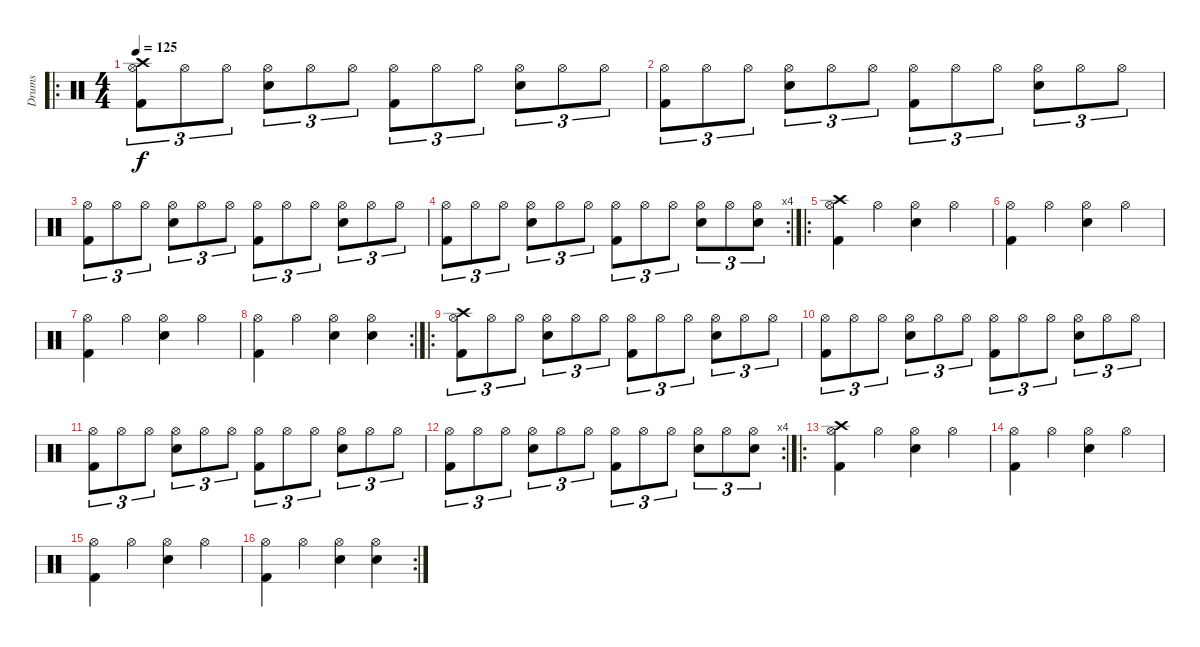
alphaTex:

\track ("Drums" "Drums") {instrument percussion}
\staff {score}
\articulation defaults
\ro
\ts (4 4)
\tempo 125
\clef neutral
\ks c
("Kick (hit) 2" "Hi-Hat (open)" "Crash high (hit)").8{tu (3 2) dy f} "Hi-Hat (open)".8{tu (3 2)} "Hi-Hat (open)".8{tu (3 2)} ("Snare (hit) 2" "Hi-Hat (open)").8{tu (3 2)} "Hi-Hat (open)".8{tu (3 2)} "Hi-Hat (open)".8{tu (3 2)} ("Kick (hit) 2" "Hi-Hat (open)").8{tu (3 2)} "Hi-Hat (open)".8{tu (3 2)} "Hi-Hat (open)".8{tu (3 2)} ("Snare (hit) 2" "Hi-Hat (open)").8{tu (3 2)} "Hi-Hat (open)".8{tu (3 2)} "Hi-Hat (open)".8{tu (3 2)} |
("Kick (hit) 2" "Hi-Hat (open)").8{tu (3 2)} "Hi-Hat (open)".8{tu (3 2)} "Hi-Hat (open)".8{tu (3 2)} ("Snare (hit) 2" "Hi-Hat (open)").8{tu (3 2)} "Hi-Hat (open)".8{tu (3 2)} "Hi-Hat (open)".8{tu (3 2)} ("Kick (hit) 2" "Hi-Hat (open)").8{tu (3 2)} "Hi-Hat (open)".8{tu (3 2)} "Hi-Hat (open)".8{tu (3 2)} ("Snare (hit) 2" "Hi-Hat (open)").8{tu (3 2)} "Hi-Hat (open)".8{tu (3 2)} "Hi-Hat (open)".8{tu (3 2)} |
("Kick (hit) 2" "Hi-Hat (open)").8{tu (3 2)} "Hi-Hat (open)".8{tu (3 2)} "Hi-Hat (open)".8{tu (3 2)} ("Snare (hit) 2" "Hi-Hat (open)").8{tu (3 2)} "Hi-Hat (open)".8{tu (3 2)} "Hi-Hat (open)".8{tu (3 2)} ("Kick (hit) 2" "Hi-Hat (open)").8{tu (3 2)} "Hi-Hat (open)".8{tu (3 2)} "Hi-Hat (open)".8{tu (3 2)} ("Snare (hit) 2" "Hi-Hat (open)").8{tu (3 2)} "Hi-Hat (open)".8{tu (3 2)} "Hi-Hat (open)".8{tu (3 2)} |
\rc 4
("Kick (hit) 2" "Hi-Hat (open)").8{tu (3 2)} "Hi-Hat (open)".8{tu (3 2)} "Hi-Hat (open)".8{tu (3 2)} ("Snare (hit) 2" "Hi-Hat (open)").8{tu (3 2)} "Hi-Hat (open)".8{tu (3 2)} "Hi-Hat (open)".8{tu (3 2)} ("Kick (hit) 2" "Hi-Hat (open)").8{tu (3 2)} "Hi-Hat (open)".8{tu (3 2)} "Hi-Hat (open)".8{tu (3 2)} ("Snare (hit) 2" "Hi-Hat (open)").8{tu (3 2)} "Hi-Hat (open)".8{tu (3 2)} ("Snare (hit) 2" "Hi-Hat (open)").8{tu (3 2)} |
\ro
("Kick (hit) 2" "Hi-Hat (open)" "Crash high (hit)").4 "Hi-Hat (open)".4 ("Snare (hit) 2" "Hi-Hat (open)").4 "Hi-Hat (open)".4 |
("Kick (hit) 2" "Hi-Hat (open)").4 "Hi-Hat (open)".4 ("Snare (hit) 2" "Hi-Hat (open)").4 "Hi-Hat (open)".4 |
("Kick (hit) 2" "Hi-Hat (open)").4 "Hi-Hat (open)".4 ("Snare (hit) 2" "Hi-Hat (open)").4 "Hi-Hat (open)".4 |
\rc 2
("Kick (hit) 2" "Hi-Hat (open)").4 "Hi-Hat (open)".4 ("Snare (hit) 2" "Hi-Hat (open)").4 ("Snare (hit) 2" "Hi-Hat (open)").4 |
\ro
("Kick (hit) 2" "Hi-Hat (open)" "Crash high (hit)").8{tu (3 2)} "Hi-Hat (open)".8{tu (3 2)} "Hi-Hat (open)".8{tu (3 2)} ("Snare (hit) 2" "Hi-Hat (open)").8{tu (3 2)} "Hi-Hat (open)".8{tu (3 2)} "Hi-Hat (open)".8{tu (3 2)} ("Kick (hit) 2" "Hi-Hat (open)").8{tu (3 2)} "Hi-Hat (open)".8{tu (3 2)} "Hi-Hat (open)".8{tu (3 2)} ("Snare (hit) 2" "Hi-Hat (open)").8{tu (3 2)} "Hi-Hat (open)".8{tu (3 2)} "Hi-Hat (open)".8{tu (3 2)} |
("Kick (hit) 2" "Hi-Hat (open)").8{tu (3 2)} "Hi-Hat (open)".8{tu (3 2)} "Hi-Hat (open)".8{tu (3 2)} ("Snare (hit) 2" "Hi-Hat (open)").8{tu (3 2)} "Hi-Hat (open)".8{tu (3 2)} "Hi-Hat (open)".8{tu (3 2)} ("Kick (hit) 2" "Hi-Hat (open)").8{tu (3 2)} "Hi-Hat (open)".8{tu (3 2)} "Hi-Hat (open)".8{tu (3 2)} ("Snare (hit) 2" "Hi-Hat (open)").8{tu (3 2)} "Hi-Hat (open)".8{tu (3 2)} "Hi-Hat (open)".8{tu (3 2)} |
("Kick (hit) 2" "Hi-Hat (open)").8{tu (3 2)} "Hi-Hat (open)".8{tu (3 2)} "Hi-Hat (open)".8{tu (3 2)} ("Snare (hit) 2" "Hi-Hat (open)").8{tu (3 2)} "Hi-Hat (open)".8{tu (3 2)} "Hi-Hat (open)".8{tu (3 2)} ("Kick (hit) 2" "Hi-Hat (open)").8{tu (3 2)} "Hi-Hat (open)".8{tu (3 2)} "Hi-Hat (open)".8{tu (3 2)} ("Snare (hit) 2" "Hi-Hat (open)").8{tu (3 2)} "Hi-Hat (open)".8{tu (3 2)} "Hi-Hat (open)".8{tu (3 2)} |
\rc 4
("Kick (hit) 2" "Hi-Hat (open)").8{tu (3 2)} "Hi-Hat (open)".8{tu (3 2)} "Hi-Hat (open)".8{tu (3 2)} ("Snare (hit) 2" "Hi-Hat (open)").8{tu (3 2)} "Hi-Hat (open)".8{tu (3 2)} "Hi-Hat (open)".8{tu (3 2)} ("Kick (hit) 2" "Hi-Hat (open)").8{tu (3 2)} "Hi-Hat (open)".8{tu (3 2)} "Hi-Hat (open)".8{tu (3 2)} ("Snare (hit) 2" "Hi-Hat (open)").8{tu (3 2)} "Hi-Hat (open)".8{tu (3 2)} ("Snare (hit) 2" "Hi-Hat (open)").8{tu (3 2)} |
\ro
("Kick (hit) 2" "Hi-Hat (open)" "Crash high (hit)").4 "Hi-Hat (open)".4 ("Snare (hit) 2" "Hi-Hat (open)").4 "Hi-Hat (open)".4 |
("Kick (hit) 2" "Hi-Hat (open)").4 "Hi-Hat (open)".4 ("Snare (hit) 2" "Hi-Hat (open)").4 "Hi-Hat (open)".4 |
("Kick (hit) 2" "Hi-Hat (open)").4 "Hi-Hat (open)".4 ("Snare (hit) 2" "Hi-Hat (open)").4 "Hi-Hat (open)".4 |
\rc 2
("Kick (hit) 2" "Hi-Hat (open)").4 "Hi-Hat (open)".4 ("Snare (hit) 2" "Hi-Hat (open)").4 ("Snare (hit) 2" "Hi-Hat (open)").4
